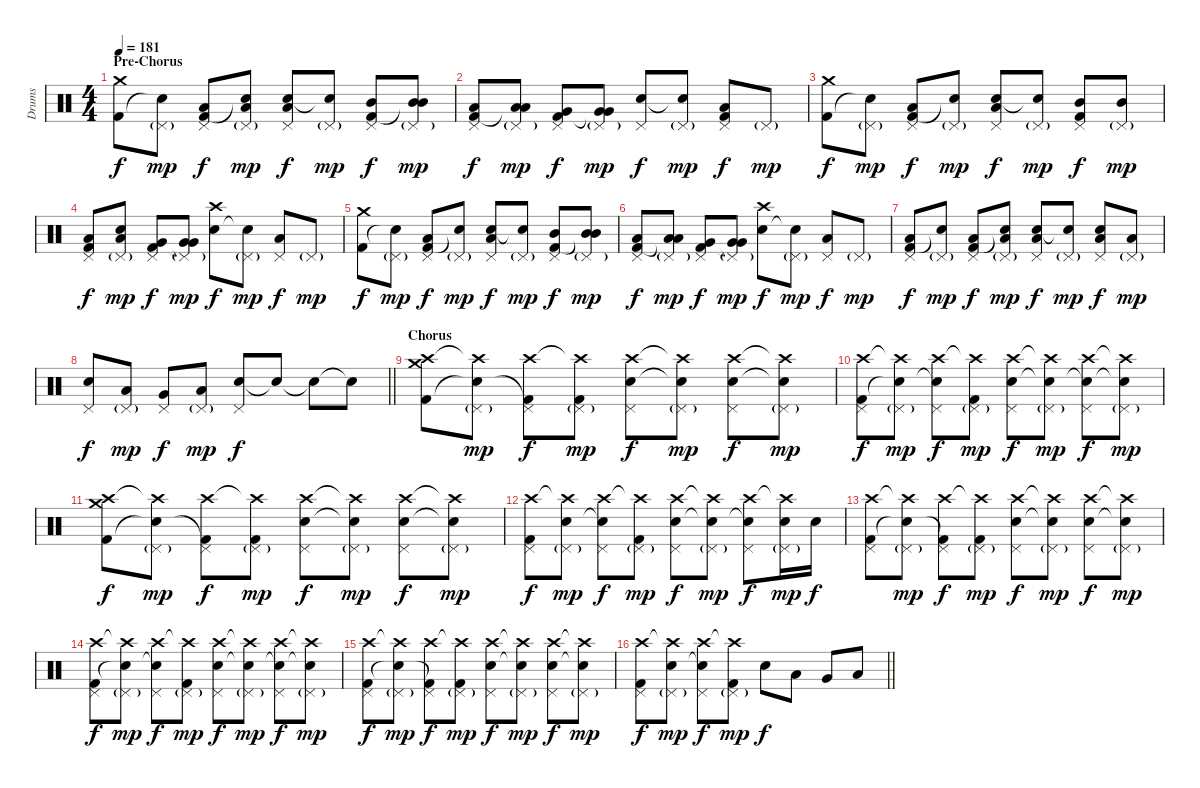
\track ("Drums" "Drums") {instrument percussion}
\staff {score}
\articulation defaults
\ts (4 4)
\section ("" "Pre-Chorus")
\tempo 181
\clef neutral
\ks c
("Kick (hit) 2" "Crash medium (hit)").8{dy f} ("Snare (hit)"{t} "Pedal Hi-Hat (hit)"{g}).8{dy mp} ("Kick (hit) 2" "Pedal Hi-Hat (hit)" "Low Floor Tom (hit)").8{dy f} ("Snare (hit)"{t} "Pedal Hi-Hat (hit)"{g} "Low Floor Tom (hit)").8{dy mp} ("Electric Snare (hit)" "Pedal Hi-Hat (hit)" "Low Floor Tom (hit)").8{dy f} ("Snare (hit)"{t} "Pedal Hi-Hat (hit)"{g}).8{dy mp} ("Kick (hit) 2" "Pedal Hi-Hat (hit)" "Mid Tom (hit)").8{dy f} ("Mid Tom (hit)"{t} "Pedal Hi-Hat (hit)"{g} "Mid Tom (hit)").8{dy mp} |
("Kick (hit) 2" "Pedal Hi-Hat (hit)" "Low Tom (hit)").8{dy f} ("Low Tom (hit)"{t} "Pedal Hi-Hat (hit)"{g} "Low Tom (hit)").8{dy mp} ("Kick (hit) 2" "Pedal Hi-Hat (hit)" "Very Low Tom (hit)").8{dy f} ("Very Low Tom (hit)"{t} "Pedal Hi-Hat (hit)"{g} "Very Low Tom (hit)").8{dy mp} ("Electric Snare (hit)" "Pedal Hi-Hat (hit)").8{dy f} ("Snare (hit)"{t} "Pedal Hi-Hat (hit)"{g}).8{dy mp} ("Kick (hit) 2" "Pedal Hi-Hat (hit)" "Low Floor Tom (hit)").8{dy f} "Pedal Hi-Hat (hit)"{g}.8{dy mp} |
("Kick (hit) 2" "Crash medium (hit)").8{dy f} ("Snare (hit)"{t} "Pedal Hi-Hat (hit)"{g}).8{dy mp} ("Kick (hit) 2" "Pedal Hi-Hat (hit)" "Low Floor Tom (hit)").8{dy f} ("Snare (hit)"{t} "Pedal Hi-Hat (hit)"{g}).8{dy mp} ("Electric Snare (hit)" "Pedal Hi-Hat (hit)" "Low Floor Tom (hit)").8{dy f} ("Snare (hit)"{t} "Pedal Hi-Hat (hit)"{g}).8{dy mp} ("Kick (hit) 2" "Pedal Hi-Hat (hit)" "Mid Tom (hit)").8{dy f} ("Pedal Hi-Hat (hit)"{g} "Mid Tom (hit)").8{dy mp} |
("Kick (hit) 2" "Pedal Hi-Hat (hit)" "Low Tom (hit)").8{dy f} ("Electric Snare (hit)" "Pedal Hi-Hat (hit)"{g} "Low Tom (hit)").8{dy mp} ("Kick (hit) 2" "Pedal Hi-Hat (hit)" "Very Low Tom (hit)").8{dy f} ("Very Low Tom (hit)"{t} "Pedal Hi-Hat (hit)"{g} "Very Low Tom (hit)").8{dy mp} ("Electric Snare (hit)" "Crash high (hit)").8{dy f} ("Snare (hit)"{t} "Pedal Hi-Hat (hit)"{g}).8{dy mp} ("Pedal Hi-Hat (hit)" "Low Floor Tom (hit)").8{dy f} "Pedal Hi-Hat (hit)"{g}.8{dy mp} |
("Kick (hit) 2" "Crash medium (hit)").8{dy f} ("Snare (hit)"{t} "Pedal Hi-Hat (hit)"{g}).8{dy mp} ("Kick (hit) 2" "Pedal Hi-Hat (hit)" "Low Floor Tom (hit)").8{dy f} ("Snare (hit)"{t} "Pedal Hi-Hat (hit)"{g}).8{dy mp} ("Electric Snare (hit)" "Pedal Hi-Hat (hit)" "Low Floor Tom (hit)").8{dy f} ("Snare (hit)"{t} "Pedal Hi-Hat (hit)"{g}).8{dy mp} ("Kick (hit) 2" "Pedal Hi-Hat (hit)" "Mid Tom (hit)").8{dy f} ("Mid Tom (hit)"{t} "Pedal Hi-Hat (hit)"{g} "Mid Tom (hit)").8{dy mp} |
("Kick (hit) 2" "Pedal Hi-Hat (hit)" "Low Tom (hit)").8{dy f} ("Low Tom (hit)"{t} "Pedal Hi-Hat (hit)"{g} "Low Tom (hit)").8{dy mp} ("Kick (hit) 2" "Pedal Hi-Hat (hit)" "Very Low Tom (hit)").8{dy f} ("Very Low Tom (hit)"{t} "Pedal Hi-Hat (hit)"{g} "Very Low Tom (hit)").8{dy mp} ("Electric Snare (hit)" "Crash high (hit)").8{dy f} ("Snare (hit)"{t} "Pedal Hi-Hat (hit)"{g}).8{dy mp} ("Pedal Hi-Hat (hit)" "Low Floor Tom (hit)").8{dy f} "Pedal Hi-Hat (hit)"{g}.8{dy mp} |
("Kick (hit) 2" "Pedal Hi-Hat (hit)" "Low Floor Tom (hit)").8{dy f} ("Snare (hit)"{t} "Pedal Hi-Hat (hit)"{g}).8{dy mp} ("Kick (hit) 2" "Pedal Hi-Hat (hit)" "Low Floor Tom (hit)").8{dy f} ("Snare (hit)"{t} "Pedal Hi-Hat (hit)"{g} "Low Floor Tom (hit)").8{dy mp} ("Electric Snare (hit)" "Pedal Hi-Hat (hit)" "Low Floor Tom (hit)").8{dy f} ("Snare (hit)"{t} "Pedal Hi-Hat (hit)"{g}).8{dy mp} ("Electric Snare (hit)" "Pedal Hi-Hat (hit)" "Low Floor Tom (hit)").8{dy f} ("Pedal Hi-Hat (hit)"{g} "Low Floor Tom (hit)").8{dy mp} |
\barLineRight lightlight
("Electric Snare (hit)" "Pedal Hi-Hat (hit)").8{dy f} ("Low Tom (hit)" "Pedal Hi-Hat (hit)"{g}).8{dy mp} ("Very Low Tom (hit)" "Pedal Hi-Hat (hit)").8{dy f} ("Low Floor Tom (hit)" "Pedal Hi-Hat (hit)"{g}).8{dy mp} ("Electric Snare (hit)" "Pedal Hi-Hat (hit)").8{dy f} "Snare (hit)"{t}.8 "Snare (hit)"{t}.8 "Snare (hit)"{t}.8 |
\section ("" "Chorus")
("Kick (hit) 2" "Crash medium (hit)" "Crash high (hit)").8 ("Snare (hit)"{t} "Pedal Hi-Hat (hit)"{g} "Crash high (hit)"{t}).8{dy mp} ("Kick (hit) 2"{t} "Pedal Hi-Hat (hit)" "Crash high (hit)").8{dy f} ("Kick (hit) 2" "Pedal Hi-Hat (hit)"{g} "Crash high (hit)"{t}).8{dy mp} ("Electric Snare (hit)" "Pedal Hi-Hat (hit)" "Crash high (hit)").8{dy f} ("Electric Snare (hit)"{t} "Pedal Hi-Hat (hit)"{g} "Crash high (hit)"{t}).8{dy mp} ("Electric Snare (hit)" "Pedal Hi-Hat (hit)" "Crash high (hit)").8{dy f} ("Snare (hit)"{t} "Pedal Hi-Hat (hit)"{g} "Crash high (hit)"{t}).8{dy mp} |
("Kick (hit) 2" "Pedal Hi-Hat (hit)" "Crash high (hit)").8{dy f} ("Snare (hit)"{t} "Pedal Hi-Hat (hit)"{g} "Crash high (hit)"{t}).8{dy mp} ("Snare (hit)"{t} "Pedal Hi-Hat (hit)" "Crash high (hit)").8{dy f} ("Kick (hit) 2" "Pedal Hi-Hat (hit)"{g} "Crash high (hit)"{t}).8{dy mp} ("Electric Snare (hit)" "Pedal Hi-Hat (hit)" "Crash high (hit)").8{dy f} ("Snare (hit)"{t} "Pedal Hi-Hat (hit)"{g} "Crash high (hit)"{t}).8{dy mp} ("Snare (hit)"{t} "Pedal Hi-Hat (hit)" "Crash high (hit)").8{dy f} ("Snare (hit)"{t} "Pedal Hi-Hat (hit)"{g} "Crash high (hit)"{t}).8{dy mp} |
("Kick (hit) 2" "Crash medium (hit)" "Crash high (hit)").8{dy f} ("Snare (hit)"{t} "Pedal Hi-Hat (hit)"{g} "Crash high (hit)"{t}).8{dy mp} ("Kick (hit) 2"{t} "Pedal Hi-Hat (hit)" "Crash high (hit)").8{dy f} ("Kick (hit) 2" "Pedal Hi-Hat (hit)"{g} "Crash high (hit)"{t}).8{dy mp} ("Electric Snare (hit)" "Pedal Hi-Hat (hit)" "Crash high (hit)").8{dy f} ("Electric Snare (hit)"{t} "Pedal Hi-Hat (hit)"{g} "Crash high (hit)"{t}).8{dy mp} ("Electric Snare (hit)" "Pedal Hi-Hat (hit)" "Crash high (hit)").8{dy f} ("Snare (hit)"{t} "Pedal Hi-Hat (hit)"{g} "Crash high (hit)"{t}).8{dy mp} |
("Kick (hit) 2" "Pedal Hi-Hat (hit)" "Crash high (hit)").8{dy f} ("Electric Snare (hit)" "Pedal Hi-Hat (hit)"{g} "Crash high (hit)"{t}).8{dy mp} ("Snare (hit)"{t} "Pedal Hi-Hat (hit)" "Crash high (hit)").8{dy f} ("Kick (hit) 2" "Pedal Hi-Hat (hit)"{g} "Crash high (hit)"{t}).8{dy mp} ("Electric Snare (hit)" "Pedal Hi-Hat (hit)" "Crash high (hit)").8{dy f} ("Snare (hit)"{t} "Pedal Hi-Hat (hit)"{g} "Crash high (hit)"{t}).8{dy mp} ("Snare (hit)"{t} "Pedal Hi-Hat (hit)" "Crash high (hit)").8{dy f} ("Electric Snare (hit)" "Pedal Hi-Hat (hit)"{g} "Crash high (hit)"{t}).16{dy mp} "Electric Snare (hit)".16{dy f} |
("Kick (hit) 2" "Pedal Hi-Hat (hit)" "Crash high (hit)").8 ("Snare (hit)"{t} "Pedal Hi-Hat (hit)"{g} "Crash high (hit)"{t}).8{dy mp} ("Kick (hit) 2"{t} "Pedal Hi-Hat (hit)" "Crash high (hit)").8{dy f} ("Kick (hit) 2" "Pedal Hi-Hat (hit)"{g} "Crash high (hit)"{t}).8{dy mp} ("Electric Snare (hit)" "Pedal Hi-Hat (hit)" "Crash high (hit)").8{dy f} ("Electric Snare (hit)"{t} "Pedal Hi-Hat (hit)"{g} "Crash high (hit)"{t}).8{dy mp} ("Electric Snare (hit)" "Pedal Hi-Hat (hit)" "Crash high (hit)").8{dy f} ("Snare (hit)"{t} "Pedal Hi-Hat (hit)"{g} "Crash high (hit)"{t}).8{dy mp} |
("Kick (hit) 2" "Pedal Hi-Hat (hit)" "Crash high (hit)").8{dy f} ("Snare (hit)"{t} "Pedal Hi-Hat (hit)"{g} "Crash high (hit)"{t}).8{dy mp} ("Snare (hit)"{t} "Pedal Hi-Hat (hit)" "Crash high (hit)").8{dy f} ("Kick (hit) 2" "Pedal Hi-Hat (hit)"{g} "Crash high (hit)"{t}).8{dy mp} ("Electric Snare (hit)" "Pedal Hi-Hat (hit)" "Crash high (hit)").8{dy f} ("Snare (hit)"{t} "Pedal Hi-Hat (hit)"{g} "Crash high (hit)"{t}).8{dy mp} ("Snare (hit)"{t} "Pedal Hi-Hat (hit)" "Crash high (hit)").8{dy f} ("Snare (hit)"{t} "Pedal Hi-Hat (hit)"{g} "Crash high (hit)"{t}).8{dy mp} |
("Kick (hit) 2" "Pedal Hi-Hat (hit)" "Crash high (hit)").8{dy f} ("Snare (hit)"{t} "Pedal Hi-Hat (hit)"{g} "Crash high (hit)"{t}).8{dy mp} ("Kick (hit) 2"{t} "Pedal Hi-Hat (hit)" "Crash high (hit)").8{dy f} ("Kick (hit) 2" "Pedal Hi-Hat (hit)"{g} "Crash high (hit)"{t}).8{dy mp} ("Electric Snare (hit)" "Pedal Hi-Hat (hit)" "Crash high (hit)").8{dy f} ("Electric Snare (hit)"{t} "Pedal Hi-Hat (hit)"{g} "Crash high (hit)"{t}).8{dy mp} ("Electric Snare (hit)" "Pedal Hi-Hat (hit)" "Crash high (hit)").8{dy f} ("Snare (hit)"{t} "Pedal Hi-Hat (hit)"{g} "Crash high (hit)"{t}).8{dy mp} |
\barLineRight lightlight
("Kick (hit) 2" "Pedal Hi-Hat (hit)" "Crash high (hit)").8{dy f} ("Electric Snare (hit)" "Pedal Hi-Hat (hit)"{g} "Crash high (hit)"{t}).8{dy mp} ("Snare (hit)"{t} "Pedal Hi-Hat (hit)" "Crash high (hit)").8{dy f} ("Kick (hit) 2" "Pedal Hi-Hat (hit)"{g} "Crash high (hit)"{t}).8{dy mp} "Electric Snare (hit)".8{dy f} "Low Tom (hit)".8 "Very Low Tom (hit)".8 "Low Floor Tom (hit)".8
